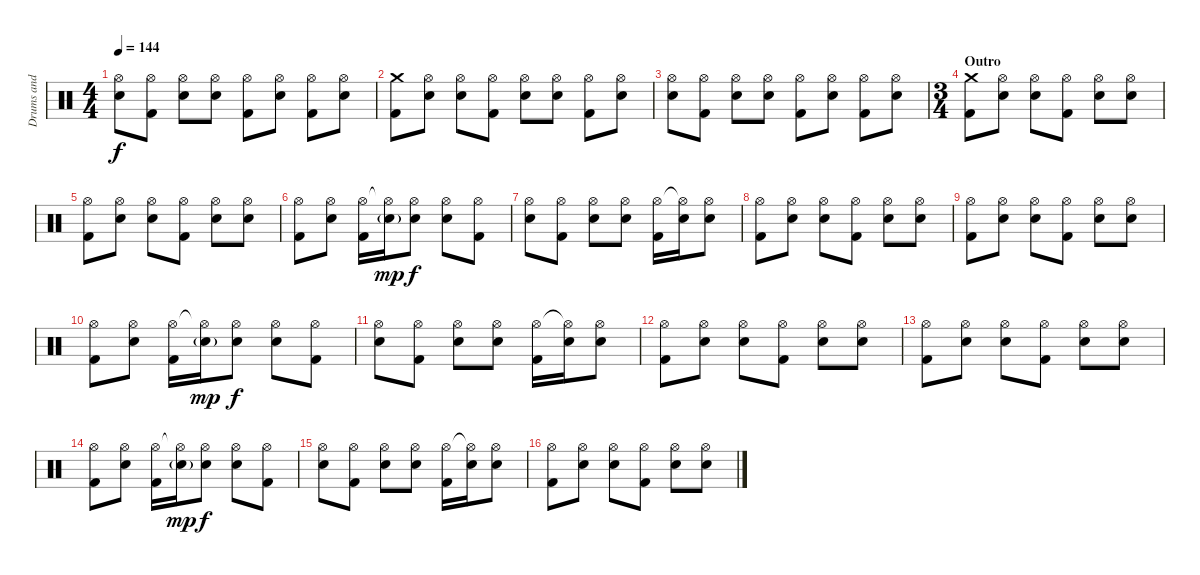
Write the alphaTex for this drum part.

\track ("Drums and Percussion" "Drums and ") {instrument percussion}
\staff {score}
\articulation defaults
\ts (4 4)
\tempo 144
\clef neutral
\ks c
("Hi-Hat (open)" "Electric Snare (hit)").8{dy f} ("Hi-Hat (open)" "Kick (hit) 2").8 ("Hi-Hat (open)" "Electric Snare (hit)").8 ("Hi-Hat (open)" "Electric Snare (hit)").8 ("Hi-Hat (open)" "Kick (hit) 2").8 ("Hi-Hat (open)" "Electric Snare (hit)").8 ("Hi-Hat (open)" "Kick (hit) 2").8 ("Hi-Hat (open)" "Electric Snare (hit)").8 |
("Crash medium (hit)" "Kick (hit) 2").8 ("Hi-Hat (open)" "Electric Snare (hit)").8 ("Hi-Hat (open)" "Electric Snare (hit)").8 ("Hi-Hat (open)" "Kick (hit) 2").8 ("Hi-Hat (open)" "Electric Snare (hit)").8 ("Hi-Hat (open)" "Electric Snare (hit)").8 ("Hi-Hat (open)" "Kick (hit) 2").8 ("Hi-Hat (open)" "Electric Snare (hit)").8 |
("Hi-Hat (open)" "Electric Snare (hit)").8 ("Hi-Hat (open)" "Kick (hit) 2").8 ("Hi-Hat (open)" "Electric Snare (hit)").8 ("Hi-Hat (open)" "Electric Snare (hit)").8 ("Hi-Hat (open)" "Kick (hit) 2").8 ("Hi-Hat (open)" "Electric Snare (hit)").8 ("Hi-Hat (open)" "Kick (hit) 2").8 ("Hi-Hat (open)" "Electric Snare (hit)").8 |
\ts (3 4)
\section ("" "Outro")
("Crash medium (hit)" "Kick (hit) 2").8 ("Hi-Hat (open)" "Electric Snare (hit)").8 ("Hi-Hat (open)" "Electric Snare (hit)").8 ("Hi-Hat (open)" "Kick (hit) 2").8 ("Hi-Hat (open)" "Electric Snare (hit)").8 ("Hi-Hat (open)" "Electric Snare (hit)").8 |
("Hi-Hat (open)" "Kick (hit) 2").8 ("Hi-Hat (open)" "Electric Snare (hit)").8 ("Hi-Hat (open)" "Electric Snare (hit)").8 ("Hi-Hat (open)" "Kick (hit) 2").8 ("Hi-Hat (open)" "Electric Snare (hit)").8 ("Hi-Hat (open)" "Electric Snare (hit)").8 |
("Hi-Hat (open)" "Kick (hit) 2").8 ("Hi-Hat (open)" "Electric Snare (hit)").8 ("Hi-Hat (open)" "Kick (hit) 2").16 ("Hi-Hat (open)"{t} "Electric Snare (hit)"{g}).16{dy mp} ("Hi-Hat (open)" "Electric Snare (hit)").8{dy f} ("Hi-Hat (open)" "Electric Snare (hit)").8 ("Hi-Hat (open)" "Kick (hit) 2").8 |
("Hi-Hat (open)" "Electric Snare (hit)").8 ("Hi-Hat (open)" "Kick (hit) 2").8 ("Hi-Hat (open)" "Electric Snare (hit)").8 ("Hi-Hat (open)" "Electric Snare (hit)").8 ("Hi-Hat (open)" "Kick (hit) 2").16 ("Hi-Hat (open)"{t} "Electric Snare (hit)").16 ("Hi-Hat (open)" "Electric Snare (hit)").8 |
("Hi-Hat (open)" "Kick (hit) 2").8 ("Hi-Hat (open)" "Electric Snare (hit)").8 ("Hi-Hat (open)" "Electric Snare (hit)").8 ("Hi-Hat (open)" "Kick (hit) 2").8 ("Hi-Hat (open)" "Electric Snare (hit)").8 ("Hi-Hat (open)" "Electric Snare (hit)").8 |
("Hi-Hat (open)" "Kick (hit) 2").8 ("Hi-Hat (open)" "Electric Snare (hit)").8 ("Hi-Hat (open)" "Electric Snare (hit)").8 ("Hi-Hat (open)" "Kick (hit) 2").8 ("Hi-Hat (open)" "Electric Snare (hit)").8 ("Hi-Hat (open)" "Electric Snare (hit)").8 |
("Hi-Hat (open)" "Kick (hit) 2").8 ("Hi-Hat (open)" "Electric Snare (hit)").8 ("Hi-Hat (open)" "Kick (hit) 2").16 ("Hi-Hat (open)"{t} "Electric Snare (hit)"{g}).16{dy mp} ("Hi-Hat (open)" "Electric Snare (hit)").8{dy f} ("Hi-Hat (open)" "Electric Snare (hit)").8 ("Hi-Hat (open)" "Kick (hit) 2").8 |
("Hi-Hat (open)" "Electric Snare (hit)").8 ("Hi-Hat (open)" "Kick (hit) 2").8 ("Hi-Hat (open)" "Electric Snare (hit)").8 ("Hi-Hat (open)" "Electric Snare (hit)").8 ("Hi-Hat (open)" "Kick (hit) 2").16 ("Hi-Hat (open)"{t} "Electric Snare (hit)").16 ("Hi-Hat (open)" "Electric Snare (hit)").8 |
("Hi-Hat (open)" "Kick (hit) 2").8 ("Hi-Hat (open)" "Electric Snare (hit)").8 ("Hi-Hat (open)" "Electric Snare (hit)").8 ("Hi-Hat (open)" "Kick (hit) 2").8 ("Hi-Hat (open)" "Electric Snare (hit)").8 ("Hi-Hat (open)" "Electric Snare (hit)").8 |
("Hi-Hat (open)" "Kick (hit) 2").8 ("Hi-Hat (open)" "Electric Snare (hit)").8 ("Hi-Hat (open)" "Electric Snare (hit)").8 ("Hi-Hat (open)" "Kick (hit) 2").8 ("Hi-Hat (open)" "Electric Snare (hit)").8 ("Hi-Hat (open)" "Electric Snare (hit)").8 |
("Hi-Hat (open)" "Kick (hit) 2").8 ("Hi-Hat (open)" "Electric Snare (hit)").8 ("Hi-Hat (open)" "Kick (hit) 2").16 ("Hi-Hat (open)"{t} "Electric Snare (hit)"{g}).16{dy mp} ("Hi-Hat (open)" "Electric Snare (hit)").8{dy f} ("Hi-Hat (open)" "Electric Snare (hit)").8 ("Hi-Hat (open)" "Kick (hit) 2").8 |
("Hi-Hat (open)" "Electric Snare (hit)").8 ("Hi-Hat (open)" "Kick (hit) 2").8 ("Hi-Hat (open)" "Electric Snare (hit)").8 ("Hi-Hat (open)" "Electric Snare (hit)").8 ("Hi-Hat (open)" "Kick (hit) 2").16 ("Hi-Hat (open)"{t} "Electric Snare (hit)").16 ("Hi-Hat (open)" "Electric Snare (hit)").8 |
("Hi-Hat (open)" "Kick (hit) 2").8 ("Hi-Hat (open)" "Electric Snare (hit)").8 ("Hi-Hat (open)" "Electric Snare (hit)").8 ("Hi-Hat (open)" "Kick (hit) 2").8 ("Hi-Hat (open)" "Electric Snare (hit)").8 ("Hi-Hat (open)" "Electric Snare (hit)").8
